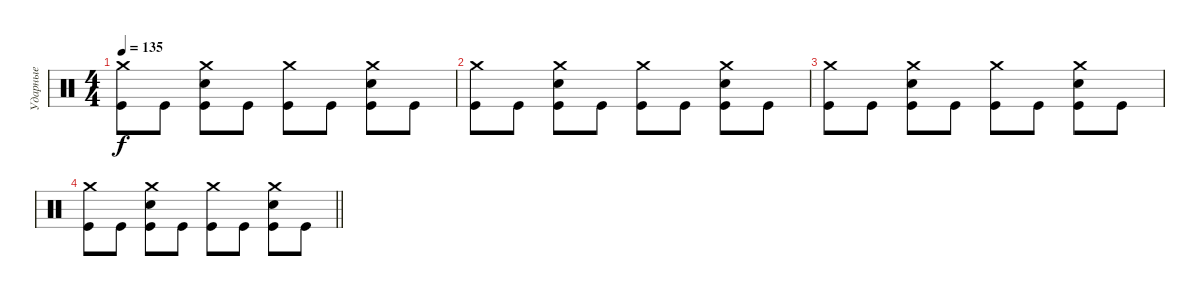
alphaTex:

\track ("Ударные" "Ударные") {instrument percussion}
\staff {score}
\articulation defaults
\ts (4 4)
\tempo 135
\clef neutral
\ks c
("Crash medium (hit)" "Kick (hit)").8{dy f} "Kick (hit)".8 ("Crash medium (hit)" "Electric Snare (hit)" "Kick (hit)").8 "Kick (hit)".8 ("Crash medium (hit)" "Kick (hit)").8 "Kick (hit)".8 ("Crash medium (hit)" "Electric Snare (hit)" "Kick (hit)").8 "Kick (hit)".8 |
("Crash medium (hit)" "Kick (hit)").8 "Kick (hit)".8 ("Crash medium (hit)" "Electric Snare (hit)" "Kick (hit)").8 "Kick (hit)".8 ("Crash medium (hit)" "Kick (hit)").8 "Kick (hit)".8 ("Crash medium (hit)" "Electric Snare (hit)" "Kick (hit)").8 "Kick (hit)".8 |
("Crash medium (hit)" "Kick (hit)").8 "Kick (hit)".8 ("Crash medium (hit)" "Electric Snare (hit)" "Kick (hit)").8 "Kick (hit)".8 ("Crash medium (hit)" "Kick (hit)").8 "Kick (hit)".8 ("Crash medium (hit)" "Electric Snare (hit)" "Kick (hit)").8 "Kick (hit)".8 |
\barLineRight lightlight
("Crash medium (hit)" "Kick (hit)").8 "Kick (hit)".8 ("Crash medium (hit)" "Electric Snare (hit)" "Kick (hit)").8 "Kick (hit)".8 ("Crash medium (hit)" "Kick (hit)").8 "Kick (hit)".8 ("Crash medium (hit)" "Electric Snare (hit)" "Kick (hit)").8 "Kick (hit)".8
